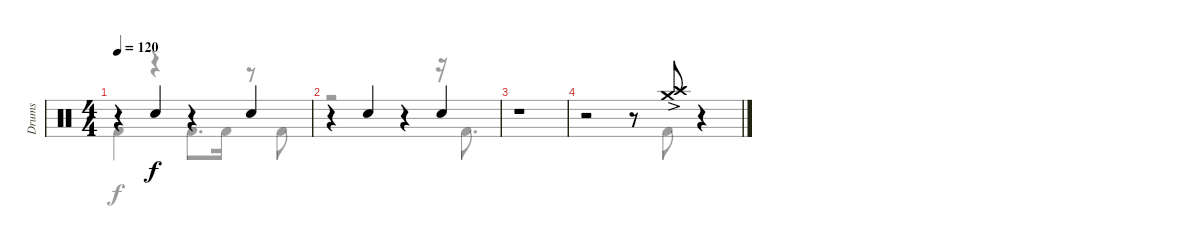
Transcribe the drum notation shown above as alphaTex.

\track ("Drums" "Drums") {instrument percussion}
\staff {score}
\articulation defaults
\voice
\ts (4 4)
\tempo 120
\clef neutral
\ks c
r.4{dy f} "Electric Snare (hit)".4 r.4 "Electric Snare (hit)".4 |
r.4 "Electric Snare (hit)".4 r.4 "Electric Snare (hit)".4 |
r.1 |
r.2 r.8 ("Crash high (hit)"{ac} "Crash medium (hit)"{ac}).8 r.4
\voice
\clef neutral
\ottava regular
\simile none
\ks c "Kick (hit) 2".4{dy f}
r.4 "Kick (hit) 2".8{d} "Kick (hit) 2".16 r.8 "Kick (hit) 2".8 |
r.2 r.4 r.16 "Kick (hit) 2".8{d} |
|
r.2 r.8 "Kick (hit) 2".8 r.4
